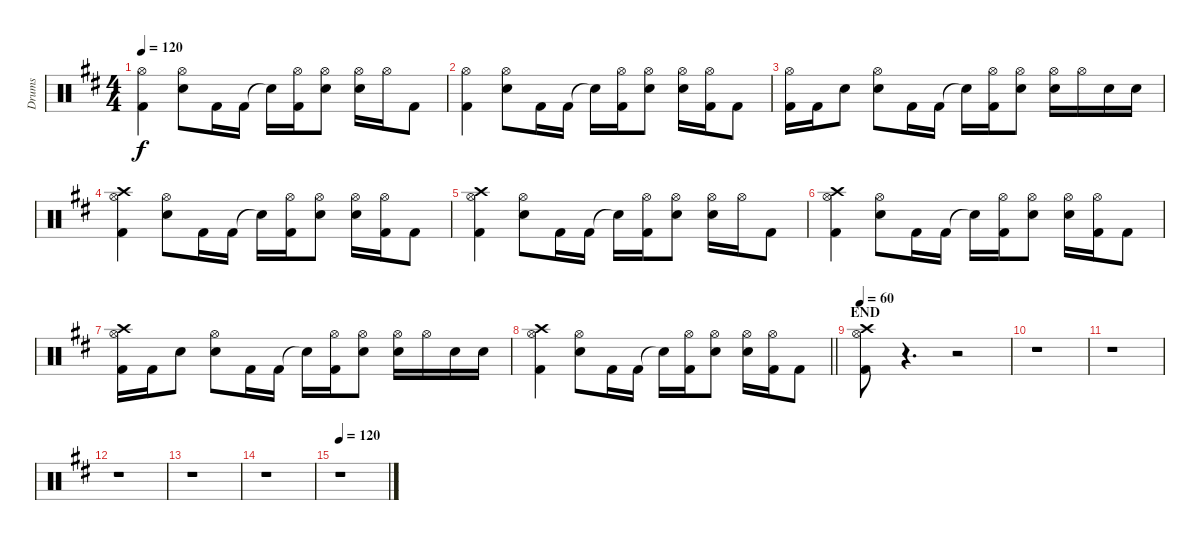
\track ("Drums" "Drums") {instrument percussion}
\staff {score}
\articulation defaults
\ts (4 4)
\tempo 120
\clef neutral
\ks d
("Hi-Hat (open)" "Kick (hit) 2").4{dy f} ("Hi-Hat (open)" "Electric Snare (hit)").8 "Kick (hit) 2".16 "Kick (hit) 2".16 "Snare (hit)"{t}.16 ("Hi-Hat (open)" "Kick (hit) 2").16 ("Hi-Hat (open)" "Electric Snare (hit)").8 ("Hi-Hat (open)" "Electric Snare (hit)").16 "Hi-Hat (open)".16 "Kick (hit) 2".8 |
("Hi-Hat (open)" "Kick (hit) 2").4 ("Hi-Hat (open)" "Electric Snare (hit)").8 "Kick (hit) 2".16 "Kick (hit) 2".16 "Snare (hit)"{t}.16 ("Hi-Hat (open)" "Kick (hit) 2").16 ("Hi-Hat (open)" "Electric Snare (hit)").8 ("Hi-Hat (open)" "Electric Snare (hit)").16 ("Hi-Hat (open)" "Kick (hit) 2").16 "Kick (hit) 2".8 |
("Hi-Hat (open)" "Kick (hit) 2").16 "Kick (hit) 2".16 "Electric Snare (hit)".8 ("Hi-Hat (open)" "Electric Snare (hit)").8 "Kick (hit) 2".16 "Kick (hit) 2".16 "Snare (hit)"{t}.16 ("Hi-Hat (open)" "Kick (hit) 2").16 ("Hi-Hat (open)" "Electric Snare (hit)").8 ("Hi-Hat (open)" "Electric Snare (hit)").16 "Hi-Hat (open)".16 "Electric Snare (hit)".16 "Electric Snare (hit)".16 |
("Crash high (hit)" "Hi-Hat (open)" "Kick (hit) 2").4 ("Hi-Hat (open)" "Electric Snare (hit)").8 "Kick (hit) 2".16 "Kick (hit) 2".16 "Snare (hit)"{t}.16 ("Hi-Hat (open)" "Kick (hit) 2").16 ("Hi-Hat (open)" "Electric Snare (hit)").8 ("Hi-Hat (open)" "Electric Snare (hit)").16 ("Hi-Hat (open)" "Kick (hit) 2").16 "Kick (hit) 2".8 |
("Crash high (hit)" "Hi-Hat (open)" "Kick (hit) 2").4 ("Hi-Hat (open)" "Electric Snare (hit)").8 "Kick (hit) 2".16 "Kick (hit) 2".16 "Snare (hit)"{t}.16 ("Hi-Hat (open)" "Kick (hit) 2").16 ("Hi-Hat (open)" "Electric Snare (hit)").8 ("Hi-Hat (open)" "Electric Snare (hit)").16 "Hi-Hat (open)".16 "Kick (hit) 2".8 |
("Crash high (hit)" "Hi-Hat (open)" "Kick (hit) 2").4 ("Hi-Hat (open)" "Electric Snare (hit)").8 "Kick (hit) 2".16 "Kick (hit) 2".16 "Snare (hit)"{t}.16 ("Hi-Hat (open)" "Kick (hit) 2").16 ("Hi-Hat (open)" "Electric Snare (hit)").8 ("Hi-Hat (open)" "Electric Snare (hit)").16 ("Hi-Hat (open)" "Kick (hit) 2").16 "Kick (hit) 2".8 |
("Crash high (hit)" "Hi-Hat (open)" "Kick (hit) 2").16 "Kick (hit) 2".16 "Electric Snare (hit)".8 ("Hi-Hat (open)" "Electric Snare (hit)").8 "Kick (hit) 2".16 "Kick (hit) 2".16 "Snare (hit)"{t}.16 ("Hi-Hat (open)" "Kick (hit) 2").16 ("Hi-Hat (open)" "Electric Snare (hit)").8 ("Hi-Hat (open)" "Electric Snare (hit)").16 "Hi-Hat (open)".16 "Electric Snare (hit)".16 "Electric Snare (hit)".16 |
\barLineRight lightlight
("Crash high (hit)" "Hi-Hat (open)" "Kick (hit) 2").4 ("Hi-Hat (open)" "Electric Snare (hit)").8 "Kick (hit) 2".16 "Kick (hit) 2".16 "Snare (hit)"{t}.16 ("Hi-Hat (open)" "Kick (hit) 2").16 ("Hi-Hat (open)" "Electric Snare (hit)").8 ("Hi-Hat (open)" "Electric Snare (hit)").16 ("Hi-Hat (open)" "Kick (hit) 2").16 "Kick (hit) 2".8 |
\section ("" "END")
\tempo 60
("Crash high (hit)" "Hi-Hat (open)" "Kick (hit) 2").8 r.4{d} r.2 |
r.1 |
r.1 |
r.1 |
r.1 |
r.1 |
\tempo 120
r.1
